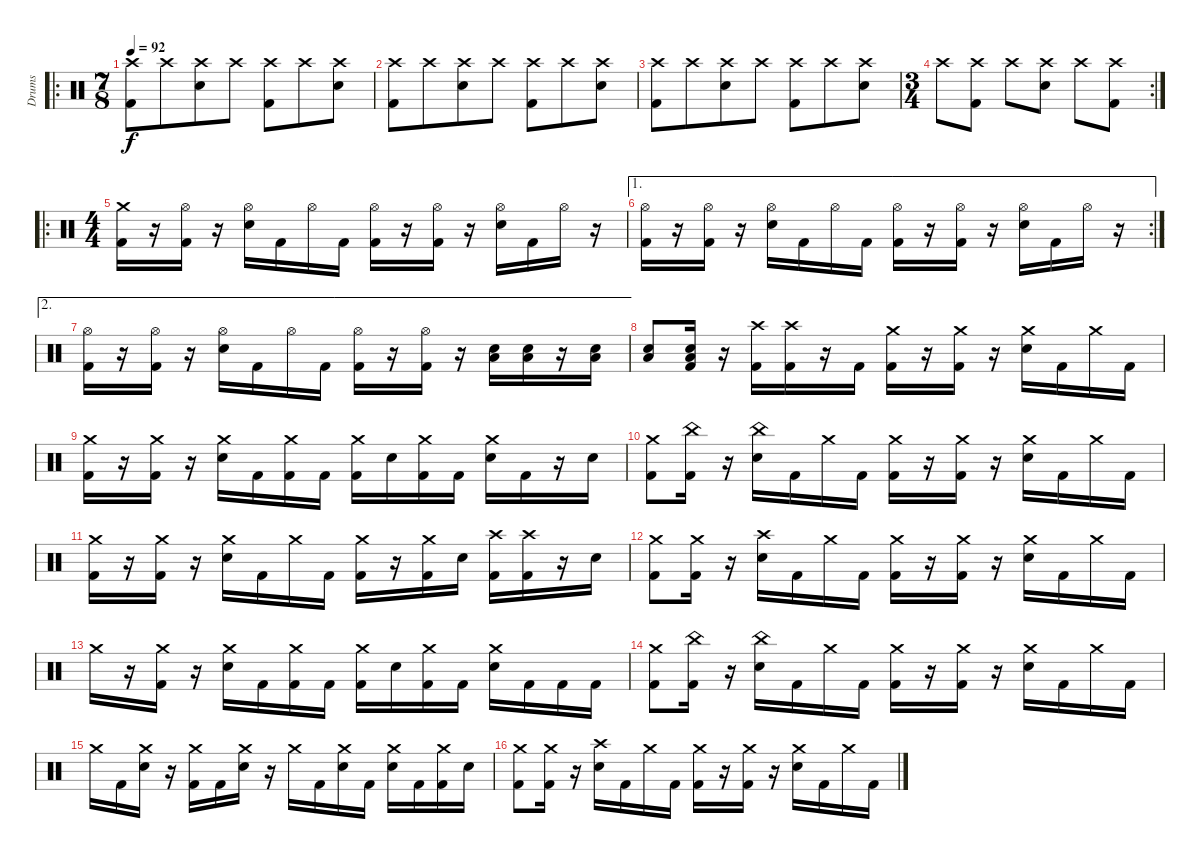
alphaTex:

\track ("Drums" "Drums") {instrument percussion}
\staff {score}
\articulation defaults
\ro
\ts (7 8)
\tempo 92
\clef neutral
\ks c
("Crash high (hit)" "Kick (hit) 2").8{dy f} "Crash high (hit)".8 ("Crash high (hit)" "Snare (hit) 2").8 "Crash high (hit)".8 ("Crash high (hit)" "Kick (hit) 2").8 "Crash high (hit)".8 ("Crash high (hit)" "Snare (hit) 2").8 |
("Crash high (hit)" "Kick (hit) 2").8 "Crash high (hit)".8 ("Crash high (hit)" "Snare (hit) 2").8 "Crash high (hit)".8 ("Crash high (hit)" "Kick (hit) 2").8 "Crash high (hit)".8 ("Crash high (hit)" "Snare (hit) 2").8 |
("Crash high (hit)" "Kick (hit) 2").8 "Crash high (hit)".8 ("Crash high (hit)" "Snare (hit) 2").8 "Crash high (hit)".8 ("Crash high (hit)" "Kick (hit) 2").8 "Crash high (hit)".8 ("Crash high (hit)" "Snare (hit) 2").8 |
\rc 2
\ts (3 4)
"Crash high (hit)".8 ("Crash high (hit)" "Kick (hit) 2").8 "Crash high (hit)".8 ("Crash high (hit)" "Snare (hit) 2").8 "Crash high (hit)".8 ("Crash high (hit)" "Kick (hit) 2").8 |
\ro
\ts (4 4)
("Crash medium (hit)" "Kick (hit) 2").16 r.16 ("Hi-Hat (open)" "Kick (hit) 2").16 r.16 ("Hi-Hat (open)" "Snare (hit) 2").16 "Kick (hit) 2".16 "Hi-Hat (open)".16 "Kick (hit) 2".16 ("Hi-Hat (open)" "Kick (hit) 2").16 r.16 ("Hi-Hat (open)" "Kick (hit) 2").16 r.16 ("Hi-Hat (open)" "Snare (hit) 2").16 "Kick (hit) 2".16 "Hi-Hat (open)".16 r.16 |
\ae 1
\rc 2
("Hi-Hat (open)" "Kick (hit) 2").16 r.16 ("Hi-Hat (open)" "Kick (hit) 2").16 r.16 ("Hi-Hat (open)" "Snare (hit) 2").16 "Kick (hit) 2".16 "Hi-Hat (open)".16 "Kick (hit) 2".16 ("Hi-Hat (open)" "Kick (hit) 2").16 r.16 ("Hi-Hat (open)" "Kick (hit) 2").16 r.16 ("Hi-Hat (open)" "Snare (hit) 2").16 "Kick (hit) 2".16 "Hi-Hat (open)".16 r.16 |
\ae 2
("Hi-Hat (open)" "Kick (hit) 2").16 r.16 ("Hi-Hat (open)" "Kick (hit) 2").16 r.16 ("Hi-Hat (open)" "Snare (hit) 2").16 "Kick (hit) 2".16 "Hi-Hat (open)".16 "Kick (hit) 2".16 ("Hi-Hat (open)" "Kick (hit) 2").16 r.16 ("Hi-Hat (open)" "Kick (hit) 2").16 r.16 ("Low Floor Tom (hit)" "Snare (hit) 2").16 ("Low Floor Tom (hit)" "Snare (hit) 2").16 r.16 ("Low Floor Tom (hit)" "Snare (hit) 2").16 |
("Low Floor Tom (hit)" "Snare (hit) 2").8 ("Low Floor Tom (hit)" "Snare (hit) 2" "Kick (hit) 2").16 r.16 ("Crash high (hit)" "Kick (hit) 2").16 ("Crash high (hit)" "Kick (hit) 2").16 r.16 "Kick (hit) 2".16 ("Crash medium (hit)" "Kick (hit) 2").16 r.16 ("Crash medium (hit)" "Kick (hit) 2").16 r.16 ("Crash medium (hit)" "Snare (hit) 2").16 "Kick (hit) 2".16 "Crash medium (hit)".16 "Kick (hit) 2".16 |
("Crash medium (hit)" "Kick (hit) 2").16 r.16 ("Crash medium (hit)" "Kick (hit) 2").16 r.16 ("Crash medium (hit)" "Snare (hit) 2").16 "Kick (hit) 2".16 ("Crash medium (hit)" "Kick (hit) 2").16 "Kick (hit) 2".16 ("Crash medium (hit)" "Kick (hit) 2").16 "Snare (hit) 2".16 ("Crash medium (hit)" "Kick (hit) 2").16 "Kick (hit) 2".16 ("Crash medium (hit)" "Snare (hit) 2").16 "Kick (hit) 2".16 r.16 "Snare (hit) 2".16 |
("Crash medium (hit)" "Kick (hit) 2").8 ("China (hit)" "Kick (hit) 2").16 r.16 ("China (hit)" "Snare (hit) 2").16 "Kick (hit) 2".16 "Crash medium (hit)".16 "Kick (hit) 2".16 ("Crash medium (hit)" "Kick (hit) 2").16 r.16 ("Crash medium (hit)" "Kick (hit) 2").16 r.16 ("Crash medium (hit)" "Snare (hit) 2").16 "Kick (hit) 2".16 "Crash medium (hit)".16 "Kick (hit) 2".16 |
("Crash medium (hit)" "Kick (hit) 2").16 r.16 ("Crash medium (hit)" "Kick (hit) 2").16 r.16 ("Crash medium (hit)" "Snare (hit) 2").16 "Kick (hit) 2".16 "Crash medium (hit)".16 "Kick (hit) 2".16 ("Crash medium (hit)" "Kick (hit) 2").16 r.16 ("Crash medium (hit)" "Kick (hit) 2").16 "Snare (hit) 2".16 ("Crash high (hit)" "Kick (hit) 2").16 ("Crash high (hit)" "Kick (hit) 2").16 r.16 "Snare (hit) 2".16 |
("Crash medium (hit)" "Kick (hit) 2").8 ("Crash medium (hit)" "Kick (hit) 2").16 r.16 ("Crash high (hit)" "Snare (hit) 2").16 "Kick (hit) 2".16 "Crash medium (hit)".16 "Kick (hit) 2".16 ("Crash medium (hit)" "Kick (hit) 2").16 r.16 ("Crash medium (hit)" "Kick (hit) 2").16 r.16 ("Crash medium (hit)" "Snare (hit) 2").16 "Kick (hit) 2".16 "Crash medium (hit)".16 "Kick (hit) 2".16 |
"Crash medium (hit)".16 r.16 ("Crash medium (hit)" "Kick (hit) 2").16 r.16 ("Crash medium (hit)" "Snare (hit) 2").16 "Kick (hit) 2".16 ("Crash medium (hit)" "Kick (hit) 2").16 "Kick (hit) 2".16 ("Crash medium (hit)" "Kick (hit) 2").16 "Snare (hit) 2".16 ("Crash medium (hit)" "Kick (hit) 2").16 "Kick (hit) 2".16 ("Crash medium (hit)" "Snare (hit) 2").16 "Kick (hit) 2".16 "Kick (hit) 2".16 "Kick (hit) 2".16 |
("Crash medium (hit)" "Kick (hit) 2").8 ("China (hit)" "Kick (hit) 2").16 r.16 ("China (hit)" "Snare (hit) 2").16 "Kick (hit) 2".16 "Crash medium (hit)".16 "Kick (hit) 2".16 ("Crash medium (hit)" "Kick (hit) 2").16 r.16 ("Crash medium (hit)" "Kick (hit) 2").16 r.16 ("Crash medium (hit)" "Snare (hit) 2").16 "Kick (hit) 2".16 "Crash medium (hit)".16 "Kick (hit) 2".16 |
"Crash medium (hit)".16 "Kick (hit) 2".16 ("Crash medium (hit)" "Snare (hit) 2").16 r.16 ("Crash medium (hit)" "Kick (hit) 2").16 "Kick (hit) 2".16 ("Crash medium (hit)" "Snare (hit) 2").16 r.16 "Crash medium (hit)".16 "Kick (hit) 2".16 ("Crash medium (hit)" "Snare (hit) 2").16 "Kick (hit) 2".16 ("Crash medium (hit)" "Snare (hit) 2").16 "Kick (hit) 2".16 ("Crash medium (hit)" "Kick (hit) 2").16 "Snare (hit) 2".16 |
("Crash medium (hit)" "Kick (hit) 2").8 ("Crash medium (hit)" "Kick (hit) 2").16 r.16 ("Crash high (hit)" "Snare (hit) 2").16 "Kick (hit) 2".16 "Crash medium (hit)".16 "Kick (hit) 2".16 ("Crash medium (hit)" "Kick (hit) 2").16 r.16 ("Crash medium (hit)" "Kick (hit) 2").16 r.16 ("Crash medium (hit)" "Snare (hit) 2").16 "Kick (hit) 2".16 "Crash medium (hit)".16 "Kick (hit) 2".16
